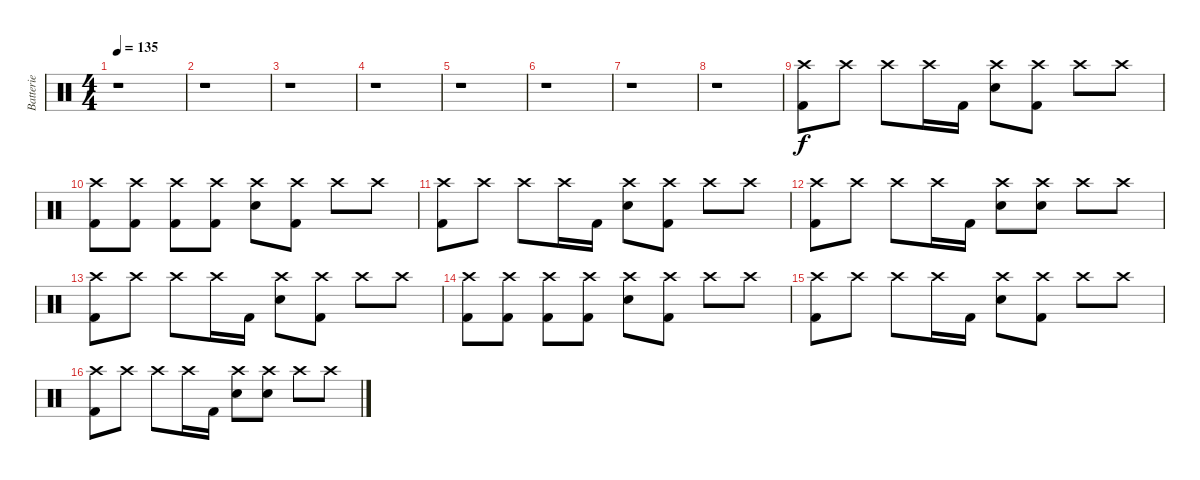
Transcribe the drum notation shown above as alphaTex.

\track ("Batterie" "Batterie") {instrument percussion}
\staff {score}
\articulation defaults
\ts (4 4)
\tempo 135
\clef neutral
\ks c
r.1{dy f} |
r.1 |
r.1 |
r.1 |
r.1 |
r.1 |
r.1 |
r.1 |
\section ("" "")
("Crash high (hit)" "Kick (hit) 2").8 "Crash high (hit)".8 "Crash high (hit)".8 "Crash high (hit)".16 "Kick (hit) 2".16 ("Crash high (hit)" "Electric Snare (hit)").8 ("Crash high (hit)" "Kick (hit) 2").8 "Crash high (hit)".8 "Crash high (hit)".8 |
("Crash high (hit)" "Kick (hit) 2").8 ("Crash high (hit)" "Kick (hit) 2").8 ("Crash high (hit)" "Kick (hit) 2").8 ("Crash high (hit)" "Kick (hit) 2").8 ("Crash high (hit)" "Electric Snare (hit)").8 ("Crash high (hit)" "Kick (hit) 2").8 "Crash high (hit)".8 "Crash high (hit)".8 |
("Crash high (hit)" "Kick (hit) 2").8 "Crash high (hit)".8 "Crash high (hit)".8 "Crash high (hit)".16 "Kick (hit) 2".16 ("Crash high (hit)" "Electric Snare (hit)").8 ("Crash high (hit)" "Kick (hit) 2").8 "Crash high (hit)".8 "Crash high (hit)".8 |
("Crash high (hit)" "Kick (hit) 2").8 "Crash high (hit)".8 "Crash high (hit)".8 "Crash high (hit)".16 "Kick (hit) 2".16 ("Crash high (hit)" "Electric Snare (hit)").8 ("Crash high (hit)" "Electric Snare (hit)").8 "Crash high (hit)".8 "Crash high (hit)".8 |
("Crash high (hit)" "Kick (hit) 2").8 "Crash high (hit)".8 "Crash high (hit)".8 "Crash high (hit)".16 "Kick (hit) 2".16 ("Crash high (hit)" "Electric Snare (hit)").8 ("Crash high (hit)" "Kick (hit) 2").8 "Crash high (hit)".8 "Crash high (hit)".8 |
("Crash high (hit)" "Kick (hit) 2").8 ("Crash high (hit)" "Kick (hit) 2").8 ("Crash high (hit)" "Kick (hit) 2").8 ("Crash high (hit)" "Kick (hit) 2").8 ("Crash high (hit)" "Electric Snare (hit)").8 ("Crash high (hit)" "Kick (hit) 2").8 "Crash high (hit)".8 "Crash high (hit)".8 |
("Crash high (hit)" "Kick (hit) 2").8 "Crash high (hit)".8 "Crash high (hit)".8 "Crash high (hit)".16 "Kick (hit) 2".16 ("Crash high (hit)" "Electric Snare (hit)").8 ("Crash high (hit)" "Kick (hit) 2").8 "Crash high (hit)".8 "Crash high (hit)".8 |
("Crash high (hit)" "Kick (hit) 2").8 "Crash high (hit)".8 "Crash high (hit)".8 "Crash high (hit)".16 "Kick (hit) 2".16 ("Crash high (hit)" "Electric Snare (hit)").8 ("Crash high (hit)" "Electric Snare (hit)").8 "Crash high (hit)".8 "Crash high (hit)".8
